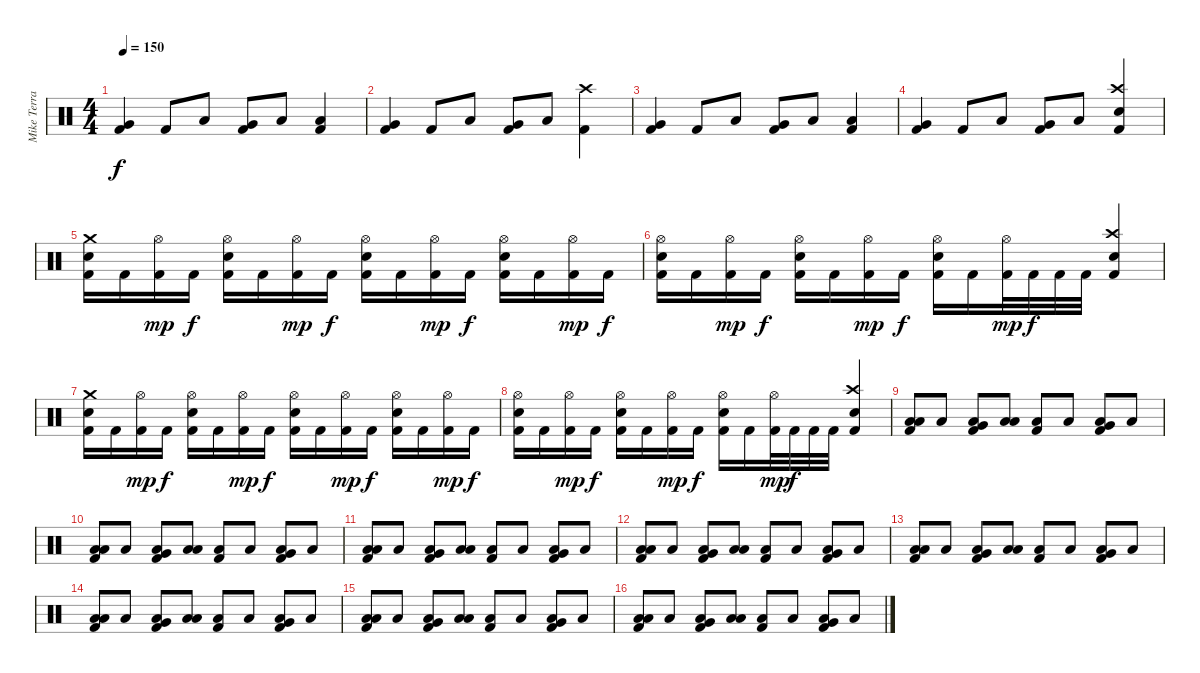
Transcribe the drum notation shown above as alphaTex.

\track ("Mike Terrana" "Mike Terra") {instrument percussion}
\staff {score}
\articulation defaults
\ts (4 4)
\tempo 150
\clef neutral
\ks c
("Very Low Tom (hit)" "Kick (hit) 2").4{dy f} "Kick (hit) 2".8 "Low Tom (hit)".8 ("Very Low Tom (hit)" "Kick (hit) 2").8 "Low Floor Tom (hit)".8 ("Low Tom (hit)" "Kick (hit) 2").4 |
("Very Low Tom (hit)" "Kick (hit) 2").4 "Kick (hit) 2".8 "Low Tom (hit)".8 ("Very Low Tom (hit)" "Kick (hit) 2").8 "Low Floor Tom (hit)".8 ("Crash high (hit)" "Kick (hit) 2").4 |
("Very Low Tom (hit)" "Kick (hit) 2").4 "Kick (hit) 2".8 "Low Tom (hit)".8 ("Very Low Tom (hit)" "Kick (hit) 2").8 "Low Floor Tom (hit)".8 ("Low Tom (hit)" "Kick (hit) 2").4 |
("Very Low Tom (hit)" "Kick (hit) 2").4 "Kick (hit) 2".8 "Low Tom (hit)".8 ("Very Low Tom (hit)" "Kick (hit) 2").8 "Low Floor Tom (hit)".8 ("Crash high (hit)" "Electric Snare (hit)" "Kick (hit) 2").4 |
("Crash medium (hit)" "Electric Snare (hit)" "Kick (hit) 2").16 "Kick (hit) 2".16 ("Hi-Hat (open)" "Kick (hit) 2").16{dy mp} "Kick (hit) 2".16{dy f} ("Hi-Hat (open)" "Electric Snare (hit)" "Kick (hit) 2").16 "Kick (hit) 2".16 ("Hi-Hat (open)" "Kick (hit) 2").16{dy mp} "Kick (hit) 2".16{dy f} ("Hi-Hat (open)" "Electric Snare (hit)" "Kick (hit) 2").16 "Kick (hit) 2".16 ("Hi-Hat (open)" "Kick (hit) 2").16{dy mp} "Kick (hit) 2".16{dy f} ("Hi-Hat (open)" "Electric Snare (hit)" "Kick (hit) 2").16 "Kick (hit) 2".16 ("Hi-Hat (open)" "Kick (hit) 2").16{dy mp} "Kick (hit) 2".16{dy f} |
("Hi-Hat (open)" "Electric Snare (hit)" "Kick (hit) 2").16 "Kick (hit) 2".16 ("Hi-Hat (open)" "Kick (hit) 2").16{dy mp} "Kick (hit) 2".16{dy f} ("Hi-Hat (open)" "Electric Snare (hit)" "Kick (hit) 2").16 "Kick (hit) 2".16 ("Hi-Hat (open)" "Kick (hit) 2").16{dy mp} "Kick (hit) 2".16{dy f} ("Hi-Hat (open)" "Electric Snare (hit)" "Kick (hit) 2").16 "Kick (hit) 2".16 ("Hi-Hat (open)" "Kick (hit) 2").32{dy mp} "Kick (hit) 2".32{dy f} "Kick (hit) 2".32 "Kick (hit) 2".32 ("Crash high (hit)" "Electric Snare (hit)" "Kick (hit) 2").4 |
("Crash medium (hit)" "Electric Snare (hit)" "Kick (hit) 2").16 "Kick (hit) 2".16 ("Hi-Hat (open)" "Kick (hit) 2").16{dy mp} "Kick (hit) 2".16{dy f} ("Hi-Hat (open)" "Electric Snare (hit)" "Kick (hit) 2").16 "Kick (hit) 2".16 ("Hi-Hat (open)" "Kick (hit) 2").16{dy mp} "Kick (hit) 2".16{dy f} ("Hi-Hat (open)" "Electric Snare (hit)" "Kick (hit) 2").16 "Kick (hit) 2".16 ("Hi-Hat (open)" "Kick (hit) 2").16{dy mp} "Kick (hit) 2".16{dy f} ("Hi-Hat (open)" "Electric Snare (hit)" "Kick (hit) 2").16 "Kick (hit) 2".16 ("Hi-Hat (open)" "Kick (hit) 2").16{dy mp} "Kick (hit) 2".16{dy f} |
("Hi-Hat (open)" "Electric Snare (hit)" "Kick (hit) 2").16 "Kick (hit) 2".16 ("Hi-Hat (open)" "Kick (hit) 2").16{dy mp} "Kick (hit) 2".16{dy f} ("Hi-Hat (open)" "Electric Snare (hit)" "Kick (hit) 2").16 "Kick (hit) 2".16 ("Hi-Hat (open)" "Kick (hit) 2").16{dy mp} "Kick (hit) 2".16{dy f} ("Hi-Hat (open)" "Electric Snare (hit)" "Kick (hit) 2").16 "Kick (hit) 2".16 ("Hi-Hat (open)" "Kick (hit) 2").32{dy mp} "Kick (hit) 2".32{dy f} "Kick (hit) 2".32 "Kick (hit) 2".32 ("Crash high (hit)" "Electric Snare (hit)" "Kick (hit) 2").4 |
("Low Tom (hit)" "Low Floor Tom (hit)" "Kick (hit) 2").8 "Low Floor Tom (hit)".8 ("Very Low Tom (hit)" "Low Floor Tom (hit)" "Kick (hit) 2").8 ("Low Tom (hit)" "Low Floor Tom (hit)").8 ("Low Floor Tom (hit)" "Kick (hit) 2").8 "Low Floor Tom (hit)".8 ("Very Low Tom (hit)" "Low Floor Tom (hit)" "Kick (hit) 2").8 "Low Floor Tom (hit)".8 |
("Low Tom (hit)" "Low Floor Tom (hit)" "Kick (hit) 2").8 "Low Floor Tom (hit)".8 ("Very Low Tom (hit)" "Low Floor Tom (hit)" "Kick (hit) 2").8 ("Low Tom (hit)" "Low Floor Tom (hit)").8 ("Low Floor Tom (hit)" "Kick (hit) 2").8 "Low Floor Tom (hit)".8 ("Very Low Tom (hit)" "Low Floor Tom (hit)" "Kick (hit) 2").8 "Low Floor Tom (hit)".8 |
("Low Tom (hit)" "Low Floor Tom (hit)" "Kick (hit) 2").8 "Low Floor Tom (hit)".8 ("Very Low Tom (hit)" "Low Floor Tom (hit)" "Kick (hit) 2").8 ("Low Tom (hit)" "Low Floor Tom (hit)").8 ("Low Floor Tom (hit)" "Kick (hit) 2").8 "Low Floor Tom (hit)".8 ("Very Low Tom (hit)" "Low Floor Tom (hit)" "Kick (hit) 2").8 "Low Floor Tom (hit)".8 |
("Low Tom (hit)" "Low Floor Tom (hit)" "Kick (hit) 2").8 "Low Floor Tom (hit)".8 ("Very Low Tom (hit)" "Low Floor Tom (hit)" "Kick (hit) 2").8 ("Low Tom (hit)" "Low Floor Tom (hit)").8 ("Low Floor Tom (hit)" "Kick (hit) 2").8 "Low Floor Tom (hit)".8 ("Very Low Tom (hit)" "Low Floor Tom (hit)" "Kick (hit) 2").8 "Low Floor Tom (hit)".8 |
("Low Tom (hit)" "Low Floor Tom (hit)" "Kick (hit) 2").8 "Low Floor Tom (hit)".8 ("Very Low Tom (hit)" "Low Floor Tom (hit)" "Kick (hit) 2").8 ("Low Tom (hit)" "Low Floor Tom (hit)").8 ("Low Floor Tom (hit)" "Kick (hit) 2").8 "Low Floor Tom (hit)".8 ("Very Low Tom (hit)" "Low Floor Tom (hit)" "Kick (hit) 2").8 "Low Floor Tom (hit)".8 |
("Low Tom (hit)" "Low Floor Tom (hit)" "Kick (hit) 2").8 "Low Floor Tom (hit)".8 ("Very Low Tom (hit)" "Low Floor Tom (hit)" "Kick (hit) 2").8 ("Low Tom (hit)" "Low Floor Tom (hit)").8 ("Low Floor Tom (hit)" "Kick (hit) 2").8 "Low Floor Tom (hit)".8 ("Very Low Tom (hit)" "Low Floor Tom (hit)" "Kick (hit) 2").8 "Low Floor Tom (hit)".8 |
("Low Tom (hit)" "Low Floor Tom (hit)" "Kick (hit) 2").8 "Low Floor Tom (hit)".8 ("Very Low Tom (hit)" "Low Floor Tom (hit)" "Kick (hit) 2").8 ("Low Tom (hit)" "Low Floor Tom (hit)").8 ("Low Floor Tom (hit)" "Kick (hit) 2").8 "Low Floor Tom (hit)".8 ("Very Low Tom (hit)" "Low Floor Tom (hit)" "Kick (hit) 2").8 "Low Floor Tom (hit)".8 |
("Low Tom (hit)" "Low Floor Tom (hit)" "Kick (hit) 2").8 "Low Floor Tom (hit)".8 ("Very Low Tom (hit)" "Low Floor Tom (hit)" "Kick (hit) 2").8 ("Low Tom (hit)" "Low Floor Tom (hit)").8 ("Low Floor Tom (hit)" "Kick (hit) 2").8 "Low Floor Tom (hit)".8 ("Very Low Tom (hit)" "Low Floor Tom (hit)" "Kick (hit) 2").8 "Low Floor Tom (hit)".8
